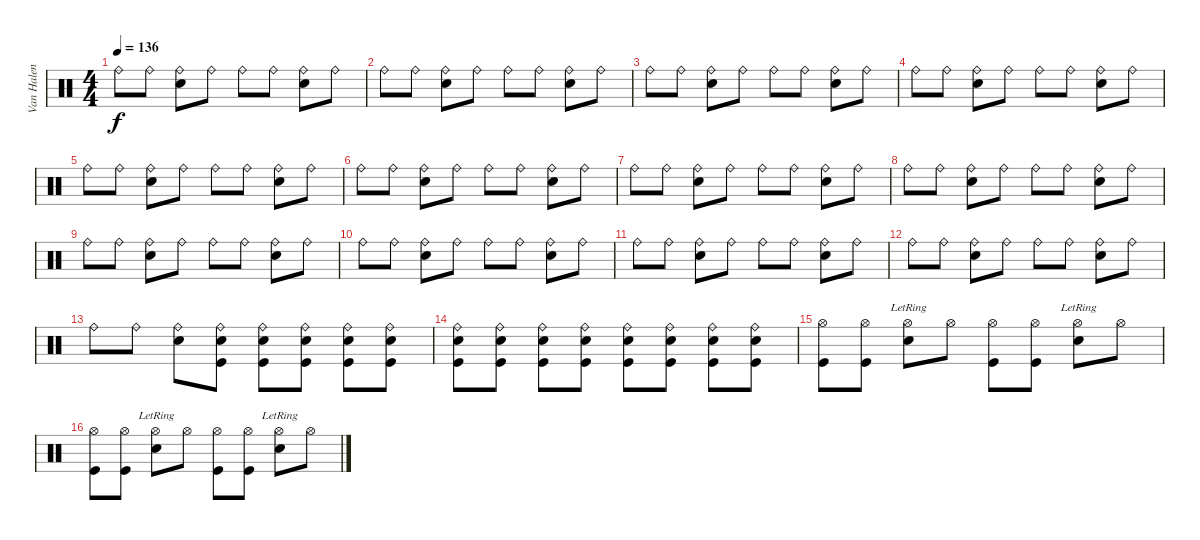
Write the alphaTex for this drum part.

\track ("Van Halen" "Van Halen") {instrument percussion}
\staff {score}
\articulation defaults
\ts (4 4)
\tempo 136
\clef neutral
\ks c "Ride (bell)".8{dy f} "Ride (bell)".8
("Ride (bell)" "Electric Snare (hit)").8 "Ride (bell)".8 "Ride (bell)".8 "Ride (bell)".8 ("Ride (bell)" "Electric Snare (hit)").8 "Ride (bell)".8 |
"Ride (bell)".8 "Ride (bell)".8 ("Ride (bell)" "Electric Snare (hit)").8 "Ride (bell)".8 "Ride (bell)".8 "Ride (bell)".8 ("Ride (bell)" "Electric Snare (hit)").8 "Ride (bell)".8 |
"Ride (bell)".8 "Ride (bell)".8 ("Ride (bell)" "Electric Snare (hit)").8 "Ride (bell)".8 "Ride (bell)".8 "Ride (bell)".8 ("Ride (bell)" "Electric Snare (hit)").8 "Ride (bell)".8 |
"Ride (bell)".8 "Ride (bell)".8 ("Ride (bell)" "Electric Snare (hit)").8 "Ride (bell)".8 "Ride (bell)".8 "Ride (bell)".8 ("Ride (bell)" "Electric Snare (hit)").8 "Ride (bell)".8 |
"Ride (bell)".8 "Ride (bell)".8 ("Ride (bell)" "Electric Snare (hit)").8 "Ride (bell)".8 "Ride (bell)".8 "Ride (bell)".8 ("Ride (bell)" "Electric Snare (hit)").8 "Ride (bell)".8 |
"Ride (bell)".8 "Ride (bell)".8 ("Ride (bell)" "Electric Snare (hit)").8 "Ride (bell)".8 "Ride (bell)".8 "Ride (bell)".8 ("Ride (bell)" "Electric Snare (hit)").8 "Ride (bell)".8 |
"Ride (bell)".8 "Ride (bell)".8 ("Ride (bell)" "Electric Snare (hit)").8 "Ride (bell)".8 "Ride (bell)".8 "Ride (bell)".8 ("Ride (bell)" "Electric Snare (hit)").8 "Ride (bell)".8 |
"Ride (bell)".8 "Ride (bell)".8 ("Ride (bell)" "Electric Snare (hit)").8 "Ride (bell)".8 "Ride (bell)".8 "Ride (bell)".8 ("Ride (bell)" "Electric Snare (hit)").8 "Ride (bell)".8 |
"Ride (bell)".8 "Ride (bell)".8 ("Ride (bell)" "Electric Snare (hit)").8 "Ride (bell)".8 "Ride (bell)".8 "Ride (bell)".8 ("Ride (bell)" "Electric Snare (hit)").8 "Ride (bell)".8 |
"Ride (bell)".8 "Ride (bell)".8 ("Ride (bell)" "Electric Snare (hit)").8 "Ride (bell)".8 "Ride (bell)".8 "Ride (bell)".8 ("Ride (bell)" "Electric Snare (hit)").8 "Ride (bell)".8 |
"Ride (bell)".8 "Ride (bell)".8 ("Ride (bell)" "Electric Snare (hit)").8 "Ride (bell)".8 "Ride (bell)".8 "Ride (bell)".8 ("Ride (bell)" "Electric Snare (hit)").8 "Ride (bell)".8 |
"Ride (bell)".8 "Ride (bell)".8 ("Ride (bell)" "Electric Snare (hit)").8 "Ride (bell)".8 "Ride (bell)".8 "Ride (bell)".8 ("Ride (bell)" "Electric Snare (hit)").8 "Ride (bell)".8 |
"Ride (bell)".8 "Ride (bell)".8 ("Ride (bell)" "Electric Snare (hit)").8 ("Kick (hit)" "Electric Snare (hit)" "Ride (bell)").8 ("Kick (hit)" "Electric Snare (hit)" "Ride (bell)").8 ("Kick (hit)" "Electric Snare (hit)" "Ride (bell)").8 ("Kick (hit)" "Electric Snare (hit)" "Ride (bell)").8 ("Kick (hit)" "Electric Snare (hit)" "Ride (bell)").8 |
("Kick (hit)" "Electric Snare (hit)" "Ride (bell)").8 ("Kick (hit)" "Electric Snare (hit)" "Ride (bell)").8 ("Kick (hit)" "Electric Snare (hit)" "Ride (bell)").8 ("Kick (hit)" "Electric Snare (hit)" "Ride (bell)").8 ("Kick (hit)" "Electric Snare (hit)" "Ride (bell)").8 ("Kick (hit)" "Electric Snare (hit)" "Ride (bell)").8 ("Kick (hit)" "Electric Snare (hit)" "Ride (bell)").8 ("Kick (hit)" "Electric Snare (hit)" "Ride (bell)").8 |
("Kick (hit)" "Hi-Hat (open)").8 ("Kick (hit)" "Hi-Hat (open)").8 ("Snare (hit) 2"{lr} "Hi-Hat (open)").8 "Hi-Hat (open)".8 ("Kick (hit)" "Hi-Hat (open)").8 ("Kick (hit)" "Hi-Hat (open)").8 ("Snare (hit) 2"{lr} "Hi-Hat (open)").8 "Hi-Hat (open)".8 |
("Kick (hit)" "Hi-Hat (open)").8 ("Kick (hit)" "Hi-Hat (open)").8 ("Snare (hit) 2"{lr} "Hi-Hat (open)").8 "Hi-Hat (open)".8 ("Kick (hit)" "Hi-Hat (open)").8 ("Kick (hit)" "Hi-Hat (open)").8 ("Snare (hit) 2"{lr} "Hi-Hat (open)").8 "Hi-Hat (open)".8
